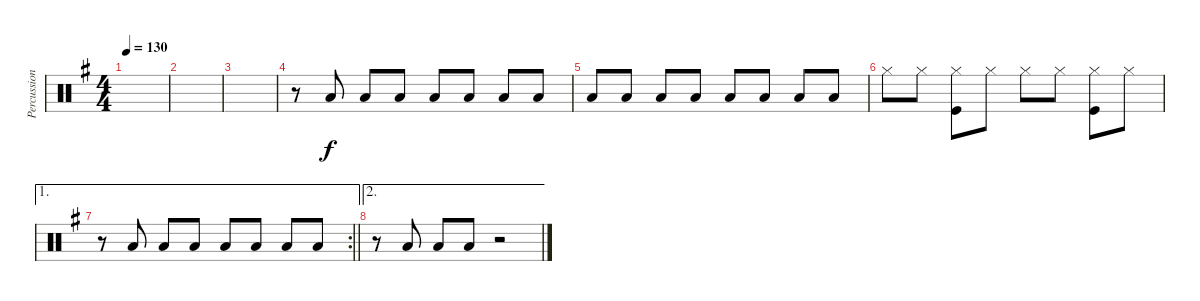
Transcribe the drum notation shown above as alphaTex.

\track ("Percussion" "Percussion") {instrument percussion}
\staff {score}
\articulation defaults
\ts (4 4)
\tempo 130
\clef neutral
\ks g
|
|
|
r.8 "Low Tom (hit)".8 "Low Tom (hit)".8 "Low Tom (hit)".8 "Low Tom (hit)".8 "Low Tom (hit)".8 "Low Tom (hit)".8 "Low Tom (hit)".8 |
"Low Tom (hit)".8 "Low Tom (hit)".8 "Low Tom (hit)".8 "Low Tom (hit)".8 "Low Tom (hit)".8 "Low Tom (hit)".8 "Low Tom (hit)".8 "Low Tom (hit)".8 |
"Hi-Hat (closed)".8 "Hi-Hat (closed)".8 ("Hi-Hat (closed)" "Kick (hit)").8 "Hi-Hat (closed)".8 "Hi-Hat (closed)".8 "Hi-Hat (closed)".8 ("Hi-Hat (closed)" "Kick (hit)").8 "Hi-Hat (closed)".8 |
\ae 1
\rc 2
\barLineRight lightlight
r.8 "Low Tom (hit)".8 "Low Tom (hit)".8 "Low Tom (hit)".8 "Low Tom (hit)".8 "Low Tom (hit)".8 "Low Tom (hit)".8 "Low Tom (hit)".8 |
\ae 2
r.8 "Low Tom (hit)".8 "Low Tom (hit)".8 "Low Tom (hit)".8 r.2
